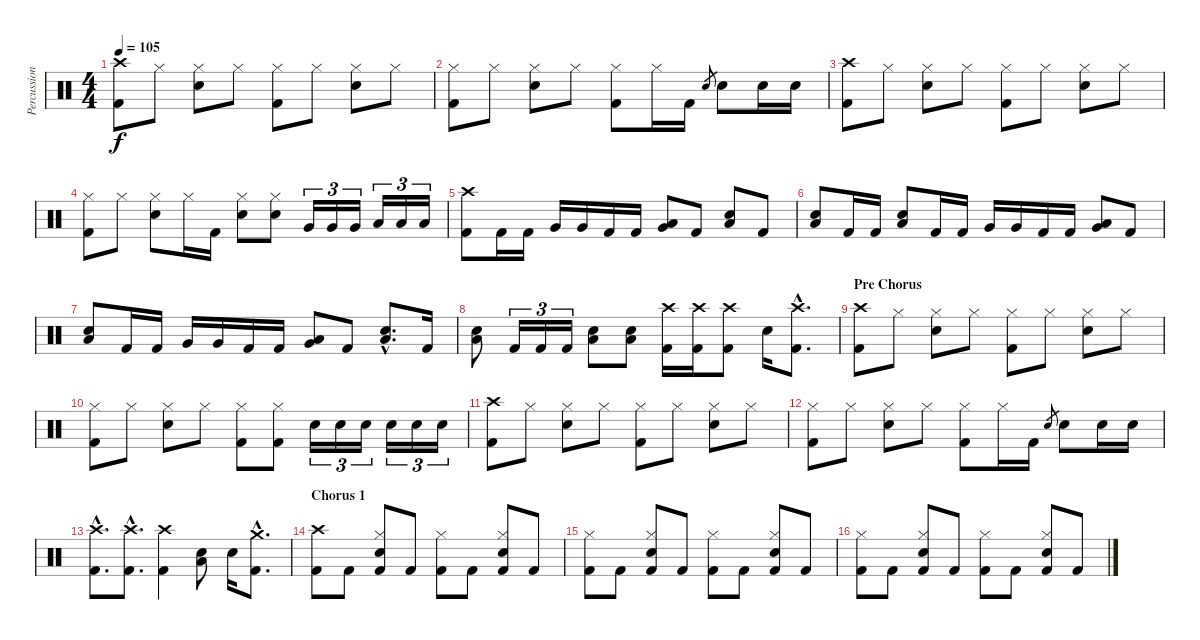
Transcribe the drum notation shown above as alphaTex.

\track ("Percussion" "Percussion") {instrument percussion}
\staff {score}
\articulation defaults
\ts (4 4)
\tempo 105
\clef neutral
\ks c
("Crash high (hit)" "Kick (hit) 2").8{dy f} "Hi-Hat (closed)".8 ("Hi-Hat (closed)" "Snare (hit) 2").8 "Hi-Hat (closed)".8 ("Hi-Hat (closed)" "Kick (hit) 2").8 "Hi-Hat (closed)".8 ("Hi-Hat (closed)" "Snare (hit) 2").8 "Hi-Hat (closed)".8 |
("Hi-Hat (closed)" "Kick (hit) 2").8 "Hi-Hat (closed)".8 ("Hi-Hat (closed)" "Snare (hit) 2").8 "Hi-Hat (closed)".8 ("Hi-Hat (closed)" "Kick (hit) 2").8 "Hi-Hat (closed)".16 "Kick (hit) 2".16 "Snare (hit) 2".8{gr} "Snare (hit) 2".8 "Snare (hit) 2".16 "Snare (hit) 2".16 |
("Crash high (hit)" "Kick (hit) 2").8 "Hi-Hat (closed)".8 ("Hi-Hat (closed)" "Snare (hit) 2").8 "Hi-Hat (closed)".8 ("Hi-Hat (closed)" "Kick (hit) 2").8 "Hi-Hat (closed)".8 ("Hi-Hat (closed)" "Snare (hit) 2").8 "Hi-Hat (closed)".8 |
("Hi-Hat (closed)" "Kick (hit) 2").8 "Hi-Hat (closed)".8 ("Hi-Hat (closed)" "Snare (hit) 2").8 "Hi-Hat (closed)".16 "Kick (hit) 2".16 ("Hi-Hat (closed)" "Snare (hit) 2").8 ("Hi-Hat (closed)" "Snare (hit) 2").8 "Very Low Tom (hit)".16{tu (3 2)} "Very Low Tom (hit)".16{tu (3 2)} "Very Low Tom (hit)".16{tu (3 2)} "Low Floor Tom (hit)".16{tu (3 2)} "Low Floor Tom (hit)".16{tu (3 2)} "Low Floor Tom (hit)".16{tu (3 2)} |
("Crash high (hit)" "Kick (hit) 2").8 "Kick (hit) 2".16 "Kick (hit) 2".16 "Very Low Tom (hit)".16 "Very Low Tom (hit)".16 "Kick (hit) 2".16 "Kick (hit) 2".16 ("Very Low Tom (hit)" "Low Floor Tom (hit)").8 "Kick (hit) 2".8 ("Low Floor Tom (hit)" "Snare (hit) 2").8 "Kick (hit) 2".8 |
("Low Floor Tom (hit)" "Snare (hit) 2").8 "Kick (hit) 2".16 "Kick (hit) 2".16 ("Low Floor Tom (hit)" "Snare (hit) 2").8 "Kick (hit) 2".16 "Kick (hit) 2".16 "Very Low Tom (hit)".16 "Very Low Tom (hit)".16 "Kick (hit) 2".16 "Kick (hit) 2".16 ("Very Low Tom (hit)" "Low Floor Tom (hit)").8 "Kick (hit) 2".8 |
("Low Floor Tom (hit)" "Snare (hit) 2").8 "Kick (hit) 2".16 "Kick (hit) 2".16 "Very Low Tom (hit)".16 "Very Low Tom (hit)".16 "Kick (hit) 2".16 "Kick (hit) 2".16 ("Very Low Tom (hit)" "Low Floor Tom (hit)").8 "Kick (hit) 2".8 ("Low Floor Tom (hit)"{hac} "Snare (hit) 2"{hac}).8{d} "Kick (hit) 2".16 |
("Low Floor Tom (hit)" "Snare (hit) 2").8 "Kick (hit) 2".16{tu (3 2)} "Kick (hit) 2".16{tu (3 2)} "Kick (hit) 2".16{tu (3 2)} ("Low Floor Tom (hit)" "Snare (hit) 2").8 ("Low Floor Tom (hit)" "Snare (hit) 2").8 ("Crash high (hit)" "Kick (hit) 2").16 ("Crash high (hit)" "Kick (hit) 2").16 ("Crash high (hit)" "Kick (hit) 2").8 "Snare (hit) 2".16 ("Crash high (hit)"{hac} "Kick (hit) 2"{hac}).8{d} |
\section ("" "Pre Chorus")
("Crash high (hit)" "Kick (hit) 2").8 "Hi-Hat (closed)".8 ("Hi-Hat (closed)" "Snare (hit) 2").8 "Hi-Hat (closed)".8 ("Hi-Hat (closed)" "Kick (hit) 2").8 "Hi-Hat (closed)".8 ("Hi-Hat (closed)" "Snare (hit) 2").8 "Hi-Hat (closed)".8 |
("Hi-Hat (closed)" "Kick (hit) 2").8 "Hi-Hat (closed)".8 ("Hi-Hat (closed)" "Snare (hit) 2").8 "Hi-Hat (closed)".8 ("Hi-Hat (closed)" "Kick (hit) 2").8 ("Hi-Hat (closed)" "Kick (hit) 2").8 "Snare (hit) 2".16{tu (3 2)} "Snare (hit) 2".16{tu (3 2)} "Snare (hit) 2".16{tu (3 2)} "Snare (hit) 2".16{tu (3 2)} "Snare (hit) 2".16{tu (3 2)} "Snare (hit) 2".16{tu (3 2)} |
("Crash high (hit)" "Kick (hit) 2").8 "Hi-Hat (closed)".8 ("Hi-Hat (closed)" "Snare (hit) 2").8 "Hi-Hat (closed)".8 ("Hi-Hat (closed)" "Kick (hit) 2").8 "Hi-Hat (closed)".8 ("Hi-Hat (closed)" "Snare (hit) 2").8 "Hi-Hat (closed)".8 |
("Hi-Hat (closed)" "Kick (hit) 2").8 "Hi-Hat (closed)".8 ("Hi-Hat (closed)" "Snare (hit) 2").8 "Hi-Hat (closed)".8 ("Hi-Hat (closed)" "Kick (hit) 2").8 "Hi-Hat (closed)".16 "Kick (hit) 2".16 "Snare (hit) 2".8{gr} "Snare (hit) 2".8 "Snare (hit) 2".16 "Snare (hit) 2".16 |
("Crash high (hit)"{hac} "Kick (hit) 2"{hac}).8{d} ("Crash high (hit)"{hac} "Kick (hit) 2"{hac}).8{d} ("Crash high (hit)" "Kick (hit) 2").4 ("Low Floor Tom (hit)" "Snare (hit) 2").8 "Snare (hit) 2".16 ("Crash medium (hit)"{hac} "Kick (hit) 2"{hac}).8{d} |
\section ("" "Chorus 1")
("Crash high (hit)" "Kick (hit) 2").8 "Kick (hit) 2".8 ("Hi-Hat (closed)" "Snare (hit) 2" "Kick (hit) 2").8 "Kick (hit) 2".8 ("Hi-Hat (closed)" "Kick (hit) 2").8 "Kick (hit) 2".8 ("Hi-Hat (closed)" "Snare (hit) 2" "Kick (hit) 2").8 "Kick (hit) 2".8 |
("Hi-Hat (closed)" "Kick (hit) 2").8 "Kick (hit) 2".8 ("Hi-Hat (closed)" "Snare (hit) 2" "Kick (hit) 2").8 "Kick (hit) 2".8 ("Hi-Hat (closed)" "Kick (hit) 2").8 "Kick (hit) 2".8 ("Hi-Hat (closed)" "Snare (hit) 2" "Kick (hit) 2").8 "Kick (hit) 2".8 |
("Hi-Hat (closed)" "Kick (hit) 2").8 "Kick (hit) 2".8 ("Hi-Hat (closed)" "Snare (hit) 2" "Kick (hit) 2").8 "Kick (hit) 2".8 ("Hi-Hat (closed)" "Kick (hit) 2").8 "Kick (hit) 2".8 ("Hi-Hat (closed)" "Snare (hit) 2" "Kick (hit) 2").8 "Kick (hit) 2".8
